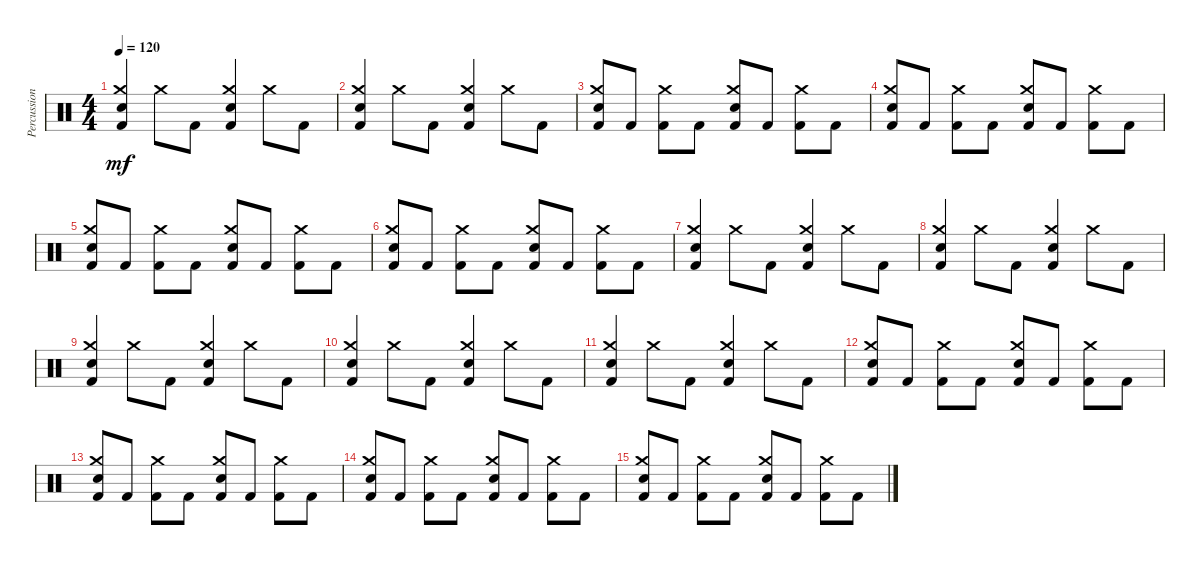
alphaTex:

\track ("Percussion" "Percussion") {instrument percussion}
\staff {score}
\articulation defaults
\ts (4 4)
\tempo 120
\clef neutral
\ks c
("Kick (hit) 2" "Crash medium (hit)" "Electric Snare (hit)").4{dy mf} "Crash medium (hit)".8 "Kick (hit) 2".8 ("Kick (hit) 2" "Crash medium (hit)" "Electric Snare (hit)").4 "Crash medium (hit)".8 "Kick (hit) 2".8 |
("Kick (hit) 2" "Crash medium (hit)" "Electric Snare (hit)").4 "Crash medium (hit)".8 "Kick (hit) 2".8 ("Kick (hit) 2" "Crash medium (hit)" "Electric Snare (hit)").4 "Crash medium (hit)".8 "Kick (hit) 2".8 |
("Kick (hit) 2" "Crash medium (hit)" "Electric Snare (hit)").8 "Kick (hit) 2".8 ("Kick (hit) 2" "Crash medium (hit)").8 "Kick (hit) 2".8 ("Kick (hit) 2" "Crash medium (hit)" "Electric Snare (hit)").8 "Kick (hit) 2".8 ("Kick (hit) 2" "Crash medium (hit)").8 "Kick (hit) 2".8 |
("Kick (hit) 2" "Crash medium (hit)" "Electric Snare (hit)").8 "Kick (hit) 2".8 ("Kick (hit) 2" "Crash medium (hit)").8 "Kick (hit) 2".8 ("Kick (hit) 2" "Crash medium (hit)" "Electric Snare (hit)").8 "Kick (hit) 2".8 ("Kick (hit) 2" "Crash medium (hit)").8 "Kick (hit) 2".8 |
("Kick (hit) 2" "Crash medium (hit)" "Electric Snare (hit)").8 "Kick (hit) 2".8 ("Kick (hit) 2" "Crash medium (hit)").8 "Kick (hit) 2".8 ("Kick (hit) 2" "Crash medium (hit)" "Electric Snare (hit)").8 "Kick (hit) 2".8 ("Kick (hit) 2" "Crash medium (hit)").8 "Kick (hit) 2".8 |
("Kick (hit) 2" "Crash medium (hit)" "Electric Snare (hit)").8 "Kick (hit) 2".8 ("Kick (hit) 2" "Crash medium (hit)").8 "Kick (hit) 2".8 ("Kick (hit) 2" "Crash medium (hit)" "Electric Snare (hit)").8 "Kick (hit) 2".8 ("Kick (hit) 2" "Crash medium (hit)").8 "Kick (hit) 2".8 |
("Kick (hit) 2" "Crash medium (hit)" "Electric Snare (hit)").4 "Crash medium (hit)".8 "Kick (hit) 2".8 ("Kick (hit) 2" "Crash medium (hit)" "Electric Snare (hit)").4 "Crash medium (hit)".8 "Kick (hit) 2".8 |
("Kick (hit) 2" "Crash medium (hit)" "Electric Snare (hit)").4 "Crash medium (hit)".8 "Kick (hit) 2".8 ("Kick (hit) 2" "Crash medium (hit)" "Electric Snare (hit)").4 "Crash medium (hit)".8 "Kick (hit) 2".8 |
("Kick (hit) 2" "Crash medium (hit)" "Electric Snare (hit)").4 "Crash medium (hit)".8 "Kick (hit) 2".8 ("Kick (hit) 2" "Crash medium (hit)" "Electric Snare (hit)").4 "Crash medium (hit)".8 "Kick (hit) 2".8 |
("Kick (hit) 2" "Crash medium (hit)" "Electric Snare (hit)").4 "Crash medium (hit)".8 "Kick (hit) 2".8 ("Kick (hit) 2" "Crash medium (hit)" "Electric Snare (hit)").4 "Crash medium (hit)".8 "Kick (hit) 2".8 |
("Kick (hit) 2" "Crash medium (hit)" "Electric Snare (hit)").4 "Crash medium (hit)".8 "Kick (hit) 2".8 ("Kick (hit) 2" "Crash medium (hit)" "Electric Snare (hit)").4 "Crash medium (hit)".8 "Kick (hit) 2".8 |
("Kick (hit) 2" "Crash medium (hit)" "Electric Snare (hit)").8 "Kick (hit) 2".8 ("Kick (hit) 2" "Crash medium (hit)").8 "Kick (hit) 2".8 ("Kick (hit) 2" "Crash medium (hit)" "Electric Snare (hit)").8 "Kick (hit) 2".8 ("Kick (hit) 2" "Crash medium (hit)").8 "Kick (hit) 2".8 |
("Kick (hit) 2" "Crash medium (hit)" "Electric Snare (hit)").8 "Kick (hit) 2".8 ("Kick (hit) 2" "Crash medium (hit)").8 "Kick (hit) 2".8 ("Kick (hit) 2" "Crash medium (hit)" "Electric Snare (hit)").8 "Kick (hit) 2".8 ("Kick (hit) 2" "Crash medium (hit)").8 "Kick (hit) 2".8 |
("Kick (hit) 2" "Crash medium (hit)" "Electric Snare (hit)").8 "Kick (hit) 2".8 ("Kick (hit) 2" "Crash medium (hit)").8 "Kick (hit) 2".8 ("Kick (hit) 2" "Crash medium (hit)" "Electric Snare (hit)").8 "Kick (hit) 2".8 ("Kick (hit) 2" "Crash medium (hit)").8 "Kick (hit) 2".8 |
("Kick (hit) 2" "Crash medium (hit)" "Electric Snare (hit)").8 "Kick (hit) 2".8 ("Kick (hit) 2" "Crash medium (hit)").8 "Kick (hit) 2".8 ("Kick (hit) 2" "Crash medium (hit)" "Electric Snare (hit)").8 "Kick (hit) 2".8 ("Kick (hit) 2" "Crash medium (hit)").8 "Kick (hit) 2".8
